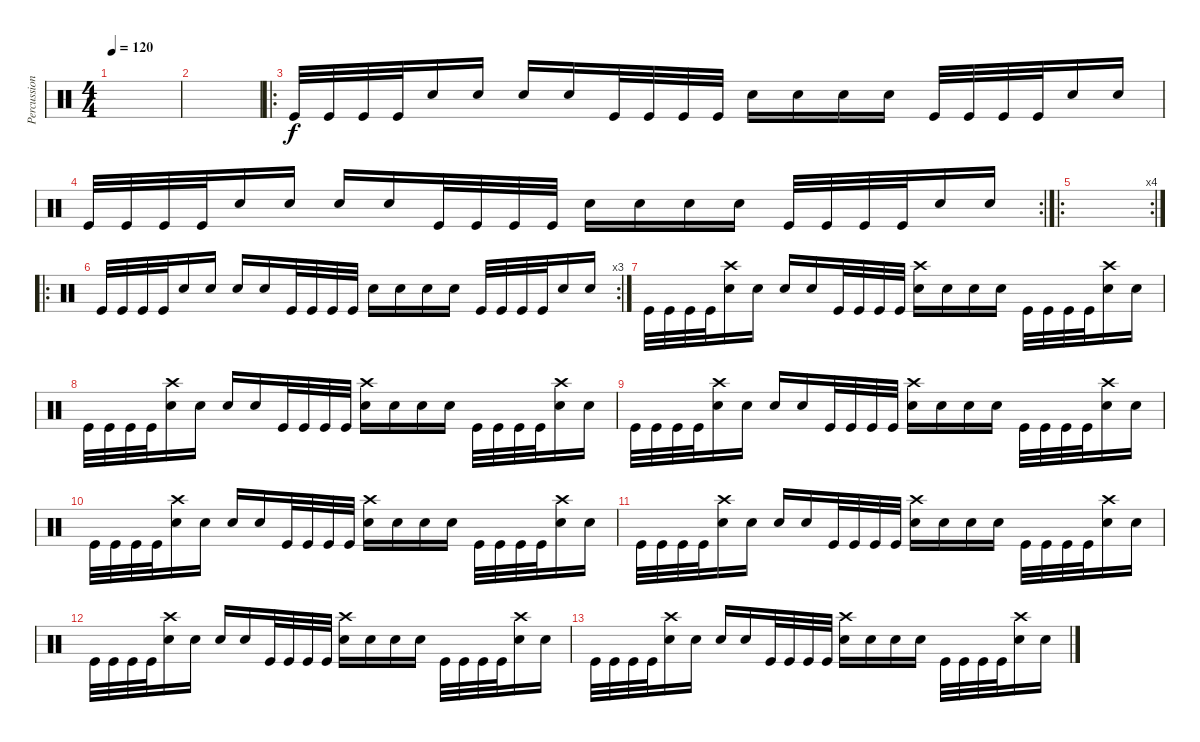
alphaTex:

\track ("Percussions" "Percussion") {instrument percussion}
\staff {score}
\articulation defaults
\ts (4 4)
\tempo 120
\clef neutral
\ks c
|
|
\ro "Kick (hit)".32 "Kick (hit)".32 "Kick (hit)".32 "Kick (hit)".32 "Electric Snare (hit)".16 "Electric Snare (hit)".16 "Electric Snare (hit)".16 "Electric Snare (hit)".16 "Kick (hit)".32 "Kick (hit)".32 "Kick (hit)".32 "Kick (hit)".32 "Electric Snare (hit)".16 "Electric Snare (hit)".16 "Electric Snare (hit)".16 "Electric Snare (hit)".16 "Kick (hit)".32 "Kick (hit)".32 "Kick (hit)".32 "Kick (hit)".32 "Electric Snare (hit)".16 "Electric Snare (hit)".16
|
\rc 2 "Kick (hit)".32 "Kick (hit)".32 "Kick (hit)".32 "Kick (hit)".32 "Electric Snare (hit)".16 "Electric Snare (hit)".16 "Electric Snare (hit)".16 "Electric Snare (hit)".16 "Kick (hit)".32 "Kick (hit)".32 "Kick (hit)".32 "Kick (hit)".32 "Electric Snare (hit)".16 "Electric Snare (hit)".16 "Electric Snare (hit)".16 "Electric Snare (hit)".16 "Kick (hit)".32 "Kick (hit)".32 "Kick (hit)".32 "Kick (hit)".32 "Electric Snare (hit)".16 "Electric Snare (hit)".16
|
\ro
\rc 4
|
\ro
\rc 3 "Kick (hit)".32 "Kick (hit)".32 "Kick (hit)".32 "Kick (hit)".32 "Electric Snare (hit)".16 "Electric Snare (hit)".16 "Electric Snare (hit)".16 "Electric Snare (hit)".16 "Kick (hit)".32 "Kick (hit)".32 "Kick (hit)".32 "Kick (hit)".32 "Electric Snare (hit)".16 "Electric Snare (hit)".16 "Electric Snare (hit)".16 "Electric Snare (hit)".16 "Kick (hit)".32 "Kick (hit)".32 "Kick (hit)".32 "Kick (hit)".32 "Electric Snare (hit)".16 "Electric Snare (hit)".16
|
"Kick (hit)".32 "Kick (hit)".32 "Kick (hit)".32 "Kick (hit)".32 ("Crash high (hit)" "Electric Snare (hit)").16 "Electric Snare (hit)".16 "Electric Snare (hit)".16 "Electric Snare (hit)".16 "Kick (hit)".32 "Kick (hit)".32 "Kick (hit)".32 "Kick (hit)".32 ("Crash high (hit)" "Electric Snare (hit)").16 "Electric Snare (hit)".16 "Electric Snare (hit)".16 "Electric Snare (hit)".16 "Kick (hit)".32 "Kick (hit)".32 "Kick (hit)".32 "Kick (hit)".32 ("Crash high (hit)" "Electric Snare (hit)").16 "Electric Snare (hit)".16 |
"Kick (hit)".32 "Kick (hit)".32 "Kick (hit)".32 "Kick (hit)".32 ("Crash high (hit)" "Electric Snare (hit)").16 "Electric Snare (hit)".16 "Electric Snare (hit)".16 "Electric Snare (hit)".16 "Kick (hit)".32 "Kick (hit)".32 "Kick (hit)".32 "Kick (hit)".32 ("Crash high (hit)" "Electric Snare (hit)").16 "Electric Snare (hit)".16 "Electric Snare (hit)".16 "Electric Snare (hit)".16 "Kick (hit)".32 "Kick (hit)".32 "Kick (hit)".32 "Kick (hit)".32 ("Crash high (hit)" "Electric Snare (hit)").16 "Electric Snare (hit)".16 |
"Kick (hit)".32 "Kick (hit)".32 "Kick (hit)".32 "Kick (hit)".32 ("Crash high (hit)" "Electric Snare (hit)").16 "Electric Snare (hit)".16 "Electric Snare (hit)".16 "Electric Snare (hit)".16 "Kick (hit)".32 "Kick (hit)".32 "Kick (hit)".32 "Kick (hit)".32 ("Crash high (hit)" "Electric Snare (hit)").16 "Electric Snare (hit)".16 "Electric Snare (hit)".16 "Electric Snare (hit)".16 "Kick (hit)".32 "Kick (hit)".32 "Kick (hit)".32 "Kick (hit)".32 ("Crash high (hit)" "Electric Snare (hit)").16 "Electric Snare (hit)".16 |
"Kick (hit)".32 "Kick (hit)".32 "Kick (hit)".32 "Kick (hit)".32 ("Crash high (hit)" "Electric Snare (hit)").16 "Electric Snare (hit)".16 "Electric Snare (hit)".16 "Electric Snare (hit)".16 "Kick (hit)".32 "Kick (hit)".32 "Kick (hit)".32 "Kick (hit)".32 ("Crash high (hit)" "Electric Snare (hit)").16 "Electric Snare (hit)".16 "Electric Snare (hit)".16 "Electric Snare (hit)".16 "Kick (hit)".32 "Kick (hit)".32 "Kick (hit)".32 "Kick (hit)".32 ("Crash high (hit)" "Electric Snare (hit)").16 "Electric Snare (hit)".16 |
"Kick (hit)".32 "Kick (hit)".32 "Kick (hit)".32 "Kick (hit)".32 ("Crash high (hit)" "Electric Snare (hit)").16 "Electric Snare (hit)".16 "Electric Snare (hit)".16 "Electric Snare (hit)".16 "Kick (hit)".32 "Kick (hit)".32 "Kick (hit)".32 "Kick (hit)".32 ("Crash high (hit)" "Electric Snare (hit)").16 "Electric Snare (hit)".16 "Electric Snare (hit)".16 "Electric Snare (hit)".16 "Kick (hit)".32 "Kick (hit)".32 "Kick (hit)".32 "Kick (hit)".32 ("Crash high (hit)" "Electric Snare (hit)").16 "Electric Snare (hit)".16 |
"Kick (hit)".32 "Kick (hit)".32 "Kick (hit)".32 "Kick (hit)".32 ("Crash high (hit)" "Electric Snare (hit)").16 "Electric Snare (hit)".16 "Electric Snare (hit)".16 "Electric Snare (hit)".16 "Kick (hit)".32 "Kick (hit)".32 "Kick (hit)".32 "Kick (hit)".32 ("Crash high (hit)" "Electric Snare (hit)").16 "Electric Snare (hit)".16 "Electric Snare (hit)".16 "Electric Snare (hit)".16 "Kick (hit)".32 "Kick (hit)".32 "Kick (hit)".32 "Kick (hit)".32 ("Crash high (hit)" "Electric Snare (hit)").16 "Electric Snare (hit)".16 |
"Kick (hit)".32 "Kick (hit)".32 "Kick (hit)".32 "Kick (hit)".32 ("Crash high (hit)" "Electric Snare (hit)").16 "Electric Snare (hit)".16 "Electric Snare (hit)".16 "Electric Snare (hit)".16 "Kick (hit)".32 "Kick (hit)".32 "Kick (hit)".32 "Kick (hit)".32 ("Crash high (hit)" "Electric Snare (hit)").16 "Electric Snare (hit)".16 "Electric Snare (hit)".16 "Electric Snare (hit)".16 "Kick (hit)".32 "Kick (hit)".32 "Kick (hit)".32 "Kick (hit)".32 ("Crash high (hit)" "Electric Snare (hit)").16 "Electric Snare (hit)".16
